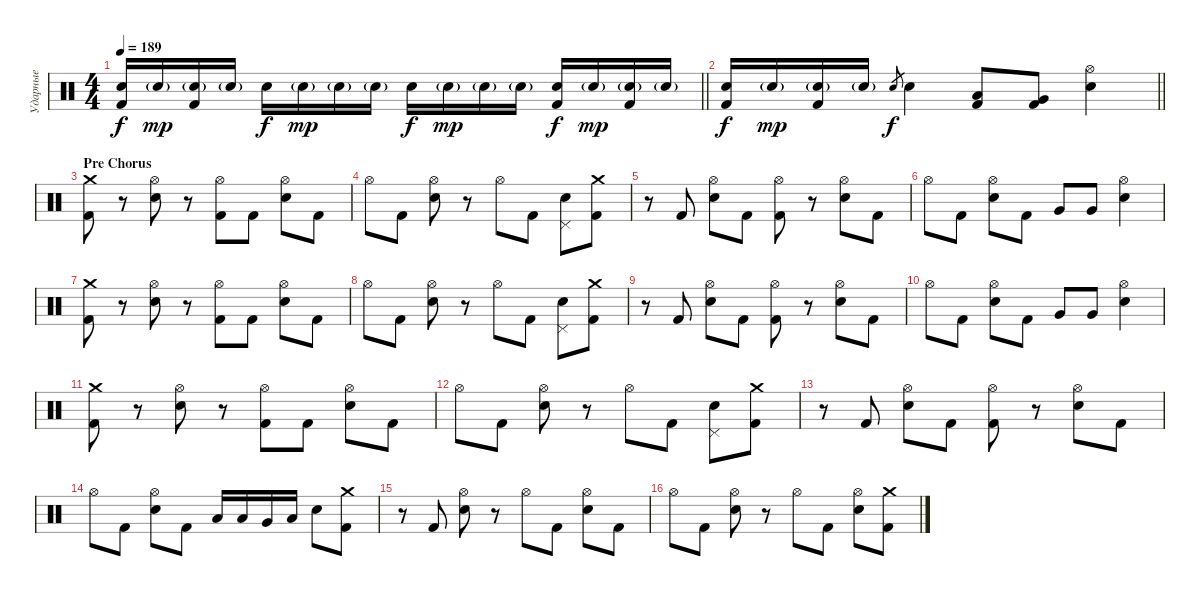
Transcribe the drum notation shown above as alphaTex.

\track ("Ударные" "Ударные") {instrument percussion}
\staff {score}
\articulation defaults
\ts (4 4)
\tempo 189
\clef neutral
\barLineRight lightlight
\ks c
("Electric Snare (hit)" "Kick (hit) 2").16{dy f} "Electric Snare (hit)"{g}.16{dy mp} ("Electric Snare (hit)"{g} "Kick (hit) 2").16 "Electric Snare (hit)"{g}.16 "Electric Snare (hit)".16{dy f} "Electric Snare (hit)"{g}.16{dy mp} "Electric Snare (hit)"{g}.16 "Electric Snare (hit)"{g}.16 "Electric Snare (hit)".16{dy f} "Electric Snare (hit)"{g}.16{dy mp} "Electric Snare (hit)"{g}.16 "Electric Snare (hit)"{g}.16 ("Electric Snare (hit)" "Kick (hit) 2").16{dy f} "Electric Snare (hit)"{g}.16{dy mp} ("Electric Snare (hit)"{g} "Kick (hit) 2").16 "Electric Snare (hit)"{g}.16 |
\barLineRight lightlight
("Electric Snare (hit)" "Kick (hit) 2").16{dy f} "Electric Snare (hit)"{g}.16{dy mp} ("Electric Snare (hit)"{g} "Kick (hit) 2").16 "Electric Snare (hit)"{g}.16 "Electric Snare (hit)".8{gr dy f} "Electric Snare (hit)".4 ("Low Tom (hit)" "Kick (hit) 2").8 ("Very Low Tom (hit)" "Kick (hit) 2").8 ("Hi-Hat (open)" "Electric Snare (hit)").4 |
\section ("" "Pre Chorus")
("Crash medium (hit)" "Kick (hit) 2").8 r.8 ("Hi-Hat (open)" "Electric Snare (hit)").8 r.8 ("Hi-Hat (open)" "Kick (hit) 2").8 "Kick (hit) 2".8 ("Hi-Hat (open)" "Electric Snare (hit)").8 "Kick (hit) 2".8 |
"Hi-Hat (open)".8 "Kick (hit) 2".8 ("Hi-Hat (open)" "Electric Snare (hit)").8 r.8 "Hi-Hat (open)".8 "Kick (hit) 2".8 ("Pedal Hi-Hat (hit)" "Electric Snare (hit)").8 ("Crash medium (hit)" "Kick (hit) 2").8 |
r.8 "Kick (hit) 2".8 ("Hi-Hat (open)" "Electric Snare (hit)").8 "Kick (hit) 2".8 ("Hi-Hat (open)" "Kick (hit) 2").8 r.8 ("Hi-Hat (open)" "Electric Snare (hit)").8 "Kick (hit) 2".8 |
"Hi-Hat (open)".8 "Kick (hit) 2".8 ("Hi-Hat (open)" "Electric Snare (hit)").8 "Kick (hit) 2".8 "Very Low Tom (hit)".8 "Very Low Tom (hit)".8 ("Hi-Hat (open)" "Electric Snare (hit)").4 |
("Crash medium (hit)" "Kick (hit) 2").8 r.8 ("Hi-Hat (open)" "Electric Snare (hit)").8 r.8 ("Hi-Hat (open)" "Kick (hit) 2").8 "Kick (hit) 2".8 ("Hi-Hat (open)" "Electric Snare (hit)").8 "Kick (hit) 2".8 |
"Hi-Hat (open)".8 "Kick (hit) 2".8 ("Hi-Hat (open)" "Electric Snare (hit)").8 r.8 "Hi-Hat (open)".8 "Kick (hit) 2".8 ("Pedal Hi-Hat (hit)" "Electric Snare (hit)").8 ("Crash medium (hit)" "Kick (hit) 2").8 |
r.8 "Kick (hit) 2".8 ("Hi-Hat (open)" "Electric Snare (hit)").8 "Kick (hit) 2".8 ("Hi-Hat (open)" "Kick (hit) 2").8 r.8 ("Hi-Hat (open)" "Electric Snare (hit)").8 "Kick (hit) 2".8 |
"Hi-Hat (open)".8 "Kick (hit) 2".8 ("Hi-Hat (open)" "Electric Snare (hit)").8 "Kick (hit) 2".8 "Very Low Tom (hit)".8 "Very Low Tom (hit)".8 ("Hi-Hat (open)" "Electric Snare (hit)").4 |
("Crash medium (hit)" "Kick (hit) 2").8 r.8 ("Hi-Hat (open)" "Electric Snare (hit)").8 r.8 ("Hi-Hat (open)" "Kick (hit) 2").8 "Kick (hit) 2".8 ("Hi-Hat (open)" "Electric Snare (hit)").8 "Kick (hit) 2".8 |
"Hi-Hat (open)".8 "Kick (hit) 2".8 ("Hi-Hat (open)" "Electric Snare (hit)").8 r.8 "Hi-Hat (open)".8 "Kick (hit) 2".8 ("Pedal Hi-Hat (hit)" "Electric Snare (hit)").8 ("Crash medium (hit)" "Kick (hit) 2").8 |
r.8 "Kick (hit) 2".8 ("Hi-Hat (open)" "Electric Snare (hit)").8 "Kick (hit) 2".8 ("Hi-Hat (open)" "Kick (hit) 2").8 r.8 ("Hi-Hat (open)" "Electric Snare (hit)").8 "Kick (hit) 2".8 |
"Hi-Hat (open)".8 "Kick (hit) 2".8 ("Hi-Hat (open)" "Electric Snare (hit)").8 "Kick (hit) 2".8 "Low Tom (hit)".16 "Low Tom (hit)".16 "Very Low Tom (hit)".16 "Low Floor Tom (hit)".16 "Electric Snare (hit)".8 ("Crash medium (hit)" "Kick (hit) 2").8 |
r.8 "Kick (hit) 2".8 ("Hi-Hat (open)" "Electric Snare (hit)").8 r.8 "Hi-Hat (open)".8 "Kick (hit) 2".8 ("Hi-Hat (open)" "Electric Snare (hit)").8 "Kick (hit) 2".8 |
"Hi-Hat (open)".8 "Kick (hit) 2".8 ("Hi-Hat (open)" "Electric Snare (hit)").8 r.8 "Hi-Hat (open)".8 "Kick (hit) 2".8 ("Hi-Hat (open)" "Electric Snare (hit)").8 ("Crash medium (hit)" "Kick (hit) 2").8
